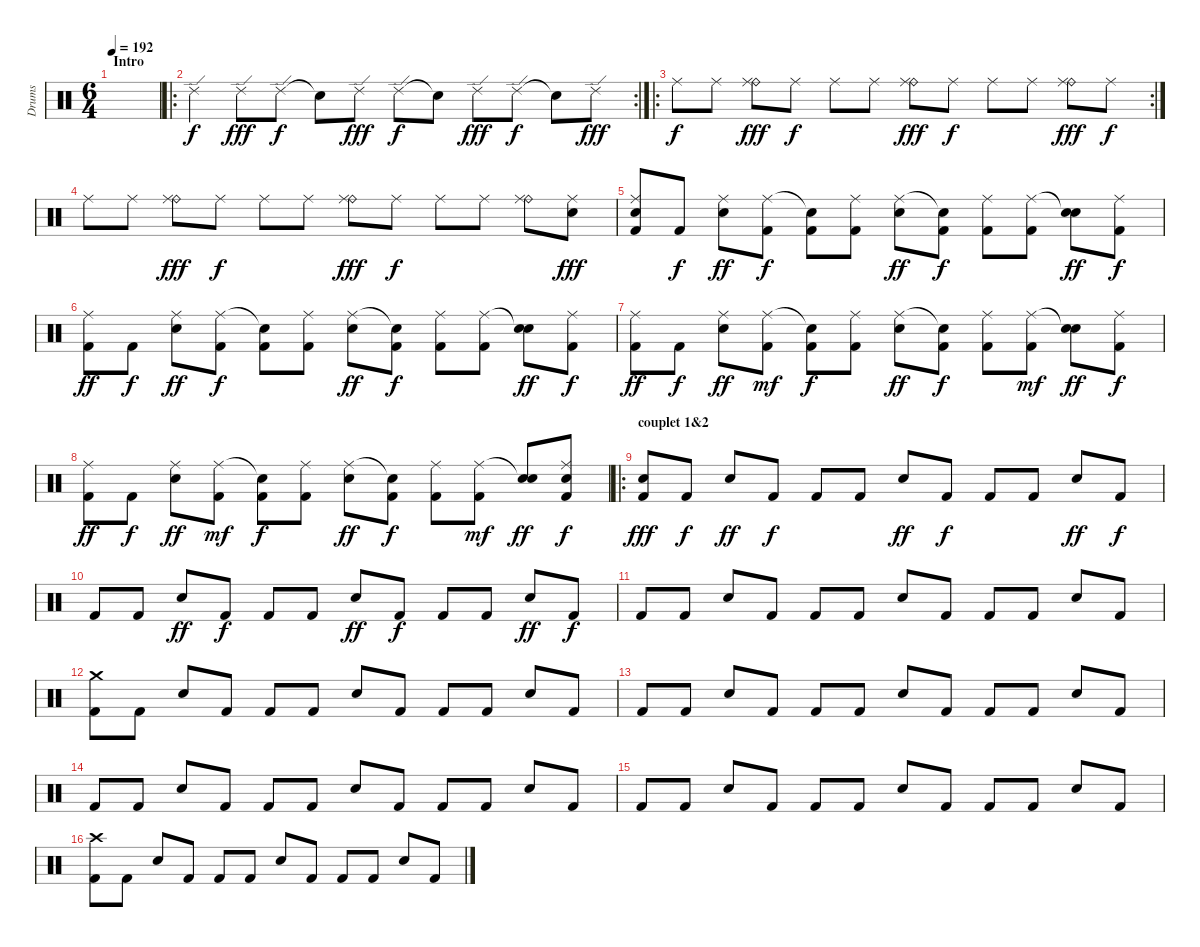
\track ("Drums" "Drums") {instrument percussion}
\staff {score}
\articulation defaults
\ts (6 4)
\section ("" "Intro")
\tempo 192
\clef neutral
\ks c
|
\ro
\rc 2 "Ride (edge) 2".4 "Ride (edge) 2".8{dy fff} "Ride (edge) 2".8{dy f} "Snare (hit)"{t}.8 "Ride (edge) 2".8{dy fff} "Ride (edge) 2".8{dy f} "Snare (hit)"{t}.8 "Ride (edge) 2".8{dy fff} "Ride (edge) 2".8{dy f} "Snare (hit)"{t}.8 "Ride (edge) 2".8{dy fff}
|
\ro
\rc 2 "Ride (middle)".8{dy f} "Ride (middle)".8
("Ride (bell)" "Ride (middle)").8{dy fff} "Ride (middle)".8{dy f} "Ride (middle)".8 "Ride (middle)".8 ("Ride (bell)" "Ride (middle)").8{dy fff} "Ride (middle)".8{dy f} "Ride (middle)".8 "Ride (middle)".8 ("Ride (bell)" "Ride (middle)").8{dy fff} "Ride (middle)".8{dy f} |
"Ride (middle)".8 "Ride (middle)".8 ("Ride (bell)" "Ride (middle)").8{dy fff} "Ride (middle)".8{dy f} "Ride (middle)".8 "Ride (middle)".8 ("Ride (bell)" "Ride (middle)").8{dy fff} "Ride (middle)".8{dy f} "Ride (middle)".8 "Ride (middle)".8 ("Ride (bell)" "Ride (middle)").8 ("Ride (middle)" "Snare (hit) 2").8{dy fff} |
("Ride (middle)" "Snare (hit) 2" "Kick (hit) 2").8 "Kick (hit) 2".8{dy f} ("Ride (middle)" "Snare (hit) 2").8{dy ff} ("Ride (middle)" "Kick (hit) 2").8{dy f} ("Snare (hit)"{t} "Kick (hit) 2").8 ("Ride (middle)" "Kick (hit) 2").8 ("Ride (middle)" "Snare (hit) 2").8{dy ff} ("Snare (hit)"{t} "Kick (hit) 2").8{dy f} ("Ride (middle)" "Kick (hit) 2").8 ("Ride (middle)" "Kick (hit) 2").8 ("Snare (hit)"{t} "Snare (hit) 2").8{dy ff} ("Ride (middle)" "Kick (hit) 2").8{dy f} |
("Ride (middle)" "Kick (hit) 2").8{dy ff} "Kick (hit) 2".8{dy f} ("Ride (middle)" "Snare (hit) 2").8{dy ff} ("Ride (middle)" "Kick (hit) 2").8{dy f} ("Snare (hit)"{t} "Kick (hit) 2").8 ("Ride (middle)" "Kick (hit) 2").8 ("Ride (middle)" "Snare (hit) 2").8{dy ff} ("Snare (hit)"{t} "Kick (hit) 2").8{dy f} ("Ride (middle)" "Kick (hit) 2").8 ("Ride (middle)" "Kick (hit) 2").8 ("Snare (hit)"{t} "Snare (hit) 2").8{dy ff} ("Ride (middle)" "Kick (hit) 2").8{dy f} |
("Ride (middle)" "Kick (hit) 2").8{dy ff} "Kick (hit) 2".8{dy f} ("Ride (middle)" "Snare (hit) 2").8{dy ff} ("Ride (middle)" "Kick (hit) 2").8{dy mf} ("Snare (hit)"{t} "Kick (hit) 2").8{dy f} ("Ride (middle)" "Kick (hit) 2").8 ("Ride (middle)" "Snare (hit) 2").8{dy ff} ("Snare (hit)"{t} "Kick (hit) 2").8{dy f} ("Ride (middle)" "Kick (hit) 2").8 ("Ride (middle)" "Kick (hit) 2").8{dy mf} ("Snare (hit)"{t} "Snare (hit) 2").8{dy ff} ("Ride (middle)" "Kick (hit) 2").8{dy f} |
("Ride (middle)" "Kick (hit) 2").8{dy ff} "Kick (hit) 2".8{dy f} ("Ride (middle)" "Snare (hit) 2").8{dy ff} ("Ride (middle)" "Kick (hit) 2").8{dy mf} ("Snare (hit)"{t} "Kick (hit) 2").8{dy f} ("Ride (middle)" "Kick (hit) 2").8 ("Ride (middle)" "Snare (hit) 2").8{dy ff} ("Snare (hit)"{t} "Kick (hit) 2").8{dy f} ("Ride (middle)" "Kick (hit) 2").8 ("Ride (middle)" "Kick (hit) 2").8{dy mf} ("Snare (hit)"{t} "Snare (hit) 2").8{dy ff} ("Ride (middle)" "Snare (hit) 2" "Kick (hit) 2").8{dy f} |
\ro
\section ("" "couplet 1&2")
("Snare (hit) 2" "Kick (hit) 2").8{dy fff} "Kick (hit) 2".8{dy f} "Snare (hit) 2".8{dy ff} "Kick (hit) 2".8{dy f} "Kick (hit) 2".8 "Kick (hit) 2".8 "Snare (hit) 2".8{dy ff} "Kick (hit) 2".8{dy f} "Kick (hit) 2".8 "Kick (hit) 2".8 "Snare (hit) 2".8{dy ff} "Kick (hit) 2".8{dy f} |
"Kick (hit) 2".8 "Kick (hit) 2".8 "Snare (hit) 2".8{dy ff} "Kick (hit) 2".8{dy f} "Kick (hit) 2".8 "Kick (hit) 2".8 "Snare (hit) 2".8{dy ff} "Kick (hit) 2".8{dy f} "Kick (hit) 2".8 "Kick (hit) 2".8 "Snare (hit) 2".8{dy ff} "Kick (hit) 2".8{dy f} |
"Kick (hit) 2".8 "Kick (hit) 2".8 "Snare (hit) 2".8 "Kick (hit) 2".8 "Kick (hit) 2".8 "Kick (hit) 2".8 "Snare (hit) 2".8 "Kick (hit) 2".8 "Kick (hit) 2".8 "Kick (hit) 2".8 "Snare (hit) 2".8 "Kick (hit) 2".8 |
("Crash medium (hit)" "Kick (hit) 2").8 "Kick (hit) 2".8 "Snare (hit) 2".8 "Kick (hit) 2".8 "Kick (hit) 2".8 "Kick (hit) 2".8 "Snare (hit) 2".8 "Kick (hit) 2".8 "Kick (hit) 2".8 "Kick (hit) 2".8 "Snare (hit) 2".8 "Kick (hit) 2".8 |
"Kick (hit) 2".8 "Kick (hit) 2".8 "Snare (hit) 2".8 "Kick (hit) 2".8 "Kick (hit) 2".8 "Kick (hit) 2".8 "Snare (hit) 2".8 "Kick (hit) 2".8 "Kick (hit) 2".8 "Kick (hit) 2".8 "Snare (hit) 2".8 "Kick (hit) 2".8 |
"Kick (hit) 2".8 "Kick (hit) 2".8 "Snare (hit) 2".8 "Kick (hit) 2".8 "Kick (hit) 2".8 "Kick (hit) 2".8 "Snare (hit) 2".8 "Kick (hit) 2".8 "Kick (hit) 2".8 "Kick (hit) 2".8 "Snare (hit) 2".8 "Kick (hit) 2".8 |
"Kick (hit) 2".8 "Kick (hit) 2".8 "Snare (hit) 2".8 "Kick (hit) 2".8 "Kick (hit) 2".8 "Kick (hit) 2".8 "Snare (hit) 2".8 "Kick (hit) 2".8 "Kick (hit) 2".8 "Kick (hit) 2".8 "Snare (hit) 2".8 "Kick (hit) 2".8 |
("Crash high (hit)" "Kick (hit) 2").8 "Kick (hit) 2".8 "Snare (hit) 2".8 "Kick (hit) 2".8 "Kick (hit) 2".8 "Kick (hit) 2".8 "Snare (hit) 2".8 "Kick (hit) 2".8 "Kick (hit) 2".8 "Kick (hit) 2".8 "Snare (hit) 2".8 "Kick (hit) 2".8
